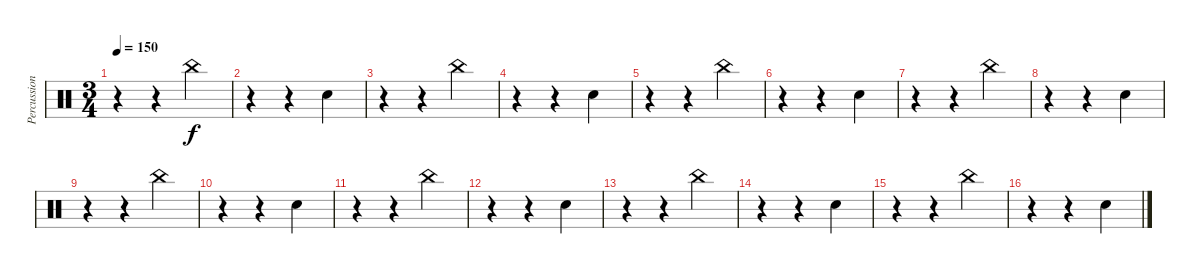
\track ("Percussion" "Percussion") {instrument percussion}
\staff {score}
\articulation defaults
\ts (3 4)
\tempo 150
\clef neutral
\ks c
r.4{dy f} r.4 "China (hit)".4 |
r.4 r.4 "Metronome (bell)".4 |
r.4 r.4 "China (hit)".4 |
r.4 r.4 "Metronome (bell)".4 |
r.4 r.4 "China (hit)".4 |
r.4 r.4 "Metronome (bell)".4 |
r.4 r.4 "China (hit)".4 |
r.4 r.4 "Metronome (bell)".4 |
r.4 r.4 "China (hit)".4 |
r.4 r.4 "Metronome (bell)".4 |
r.4 r.4 "China (hit)".4 |
r.4 r.4 "Metronome (bell)".4 |
r.4 r.4 "China (hit)".4 |
r.4 r.4 "Metronome (bell)".4 |
r.4 r.4 "China (hit)".4 |
r.4 r.4 "Metronome (bell)".4
